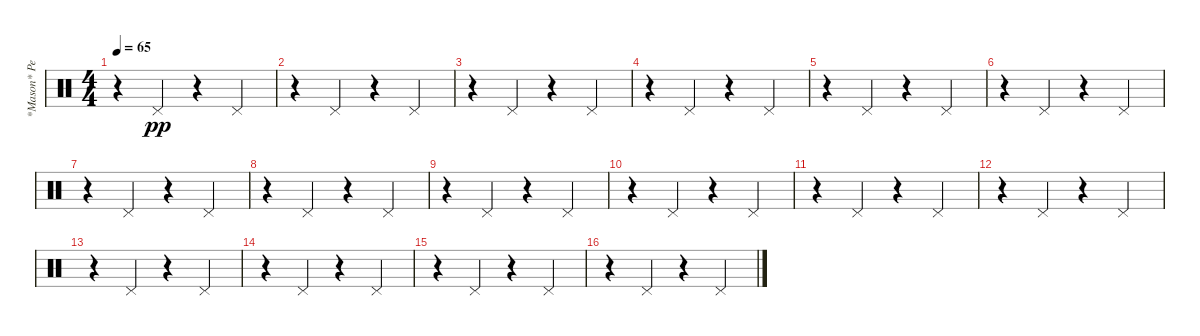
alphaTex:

\track ("*Mason* Percussion" "*Mason* Pe") {instrument percussion}
\staff {score}
\articulation defaults
\ts (4 4)
\tempo 65
\clef neutral
\ks c
r.4{dy pp} "Pedal Hi-Hat (hit)".4 r.4 "Pedal Hi-Hat (hit)".4 |
r.4 "Pedal Hi-Hat (hit)".4 r.4 "Pedal Hi-Hat (hit)".4 |
r.4 "Pedal Hi-Hat (hit)".4 r.4 "Pedal Hi-Hat (hit)".4 |
r.4 "Pedal Hi-Hat (hit)".4 r.4 "Pedal Hi-Hat (hit)".4 |
r.4 "Pedal Hi-Hat (hit)".4 r.4 "Pedal Hi-Hat (hit)".4 |
r.4 "Pedal Hi-Hat (hit)".4 r.4 "Pedal Hi-Hat (hit)".4 |
r.4 "Pedal Hi-Hat (hit)".4 r.4 "Pedal Hi-Hat (hit)".4 |
r.4 "Pedal Hi-Hat (hit)".4 r.4 "Pedal Hi-Hat (hit)".4 |
r.4 "Pedal Hi-Hat (hit)".4 r.4 "Pedal Hi-Hat (hit)".4 |
r.4 "Pedal Hi-Hat (hit)".4 r.4 "Pedal Hi-Hat (hit)".4 |
r.4 "Pedal Hi-Hat (hit)".4 r.4 "Pedal Hi-Hat (hit)".4 |
r.4 "Pedal Hi-Hat (hit)".4 r.4 "Pedal Hi-Hat (hit)".4 |
r.4 "Pedal Hi-Hat (hit)".4 r.4 "Pedal Hi-Hat (hit)".4 |
r.4 "Pedal Hi-Hat (hit)".4 r.4 "Pedal Hi-Hat (hit)".4 |
r.4 "Pedal Hi-Hat (hit)".4 r.4 "Pedal Hi-Hat (hit)".4 |
r.4 "Pedal Hi-Hat (hit)".4 r.4 "Pedal Hi-Hat (hit)".4
